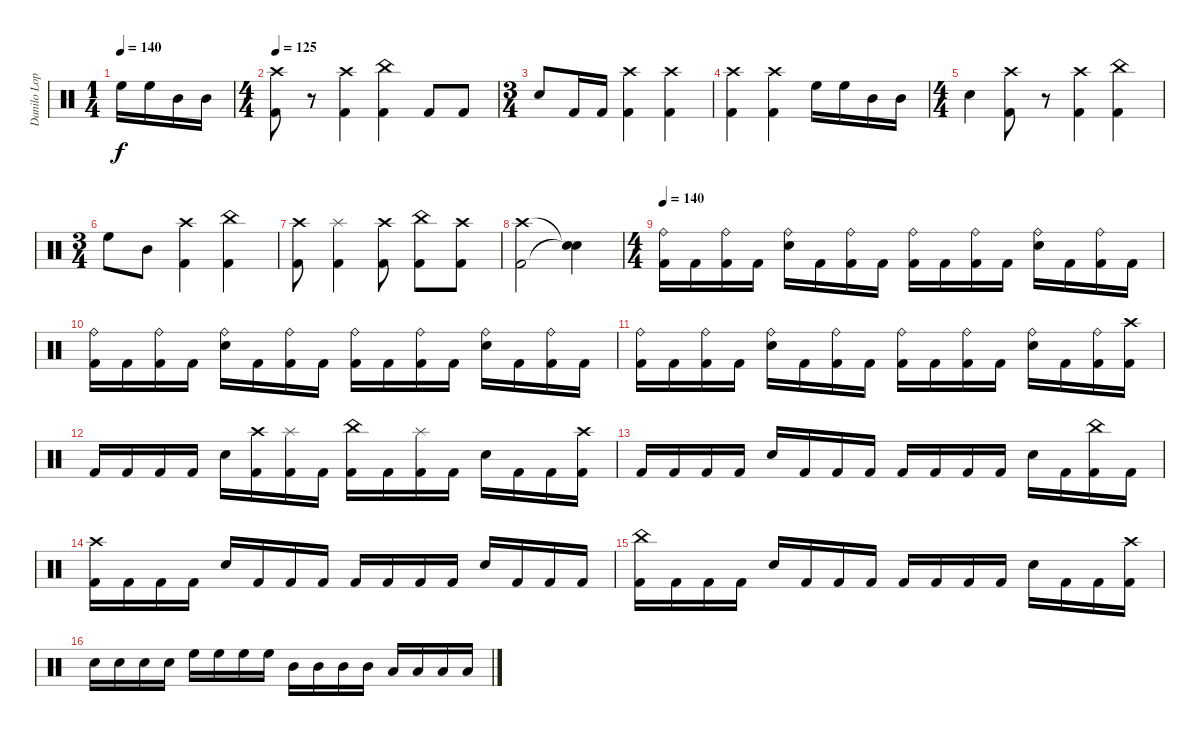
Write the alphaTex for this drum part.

\track ("Danilo Lopes" "Danilo Lop") {instrument percussion}
\staff {score}
\articulation defaults
\ts (1 4)
\tempo 140
\clef neutral
\ks c "High Floor Tom (hit)".16{dy f} "High Floor Tom (hit)".16 "Mid Tom (hit)".16 "Mid Tom (hit)".16
|
\ts (4 4)
\tempo 125
("Crash high (hit)" "Kick (hit) 2").8 r.8 ("Crash high (hit)" "Kick (hit) 2").4 ("China (hit)" "Kick (hit) 2").4 "Kick (hit) 2".8 "Kick (hit) 2".8 |
\ts (3 4)
"Snare (hit) 2".8 "Kick (hit) 2".16 "Kick (hit) 2".16 ("Crash high (hit)" "Kick (hit) 2").4 ("Kick (hit) 2" "Crash high (hit)").4 |
("Kick (hit) 2" "Crash high (hit)").4 ("Kick (hit) 2" "Crash high (hit)").4 "High Floor Tom (hit)".16 "High Floor Tom (hit)".16 "Mid Tom (hit)".16 "Mid Tom (hit)".16 |
\ts (4 4)
"Snare (hit) 2".4 ("Kick (hit) 2" "Crash high (hit)").8 r.8 ("Kick (hit) 2" "Crash high (hit)").4 ("China (hit)" "Kick (hit) 2").4 |
\ts (3 4)
"High Floor Tom (hit)".8 "Mid Tom (hit)".8 ("Kick (hit) 2" "Crash high (hit)").4 ("Kick (hit) 2" "China (hit)").4 |
("Crash high (hit)" "Kick (hit) 2").8 ("Splash (hit)" "Kick (hit) 2").4 ("Crash high (hit)" "Kick (hit) 2").8 ("China (hit)" "Kick (hit) 2").8 ("Crash high (hit)" "Kick (hit) 2").8 |
("Crash high (hit)" "Kick (hit) 2").2 ("Snare (hit)"{t} "Snare (hit)"{t}).4 |
\ts (4 4)
\tempo 140
("Ride (bell)" "Kick (hit) 2").16 "Kick (hit) 2".16 ("Ride (bell)" "Kick (hit) 2").16 "Kick (hit) 2".16 ("Ride (bell)" "Snare (hit) 2").16 "Kick (hit) 2".16 ("Ride (bell)" "Kick (hit) 2").16 "Kick (hit) 2".16 ("Ride (bell)" "Kick (hit) 2").16 "Kick (hit) 2".16 ("Ride (bell)" "Kick (hit) 2").16 "Kick (hit) 2".16 ("Ride (bell)" "Snare (hit) 2").16 "Kick (hit) 2".16 ("Ride (bell)" "Kick (hit) 2").16 "Kick (hit) 2".16 |
("Ride (bell)" "Kick (hit) 2").16 "Kick (hit) 2".16 ("Ride (bell)" "Kick (hit) 2").16 "Kick (hit) 2".16 ("Ride (bell)" "Snare (hit) 2").16 "Kick (hit) 2".16 ("Ride (bell)" "Kick (hit) 2").16 "Kick (hit) 2".16 ("Ride (bell)" "Kick (hit) 2").16 "Kick (hit) 2".16 ("Ride (bell)" "Kick (hit) 2").16 "Kick (hit) 2".16 ("Ride (bell)" "Snare (hit) 2").16 "Kick (hit) 2".16 ("Ride (bell)" "Kick (hit) 2").16 "Kick (hit) 2".16 |
("Ride (bell)" "Kick (hit) 2").16 "Kick (hit) 2".16 ("Ride (bell)" "Kick (hit) 2").16 "Kick (hit) 2".16 ("Ride (bell)" "Snare (hit) 2").16 "Kick (hit) 2".16 ("Ride (bell)" "Kick (hit) 2").16 "Kick (hit) 2".16 ("Ride (bell)" "Kick (hit) 2").16 "Kick (hit) 2".16 ("Ride (bell)" "Kick (hit) 2").16 "Kick (hit) 2".16 ("Ride (bell)" "Snare (hit) 2").16 "Kick (hit) 2".16 ("Ride (bell)" "Kick (hit) 2").16 ("Crash high (hit)" "Kick (hit) 2").16 |
"Kick (hit) 2".16 "Kick (hit) 2".16 "Kick (hit) 2".16 "Kick (hit) 2".16 "Snare (hit) 2".16 ("Crash high (hit)" "Kick (hit) 2").16 ("Splash (hit)" "Kick (hit) 2").16 "Kick (hit) 2".16 ("China (hit)" "Kick (hit) 2").16 "Kick (hit) 2".16 ("Splash (hit)" "Kick (hit) 2").16 "Kick (hit) 2".16 "Snare (hit) 2".16 "Kick (hit) 2".16 "Kick (hit) 2".16 ("Crash high (hit)" "Kick (hit) 2").16 |
"Kick (hit) 2".16 "Kick (hit) 2".16 "Kick (hit) 2".16 "Kick (hit) 2".16 "Snare (hit) 2".16 "Kick (hit) 2".16 "Kick (hit) 2".16 "Kick (hit) 2".16 "Kick (hit) 2".16 "Kick (hit) 2".16 "Kick (hit) 2".16 "Kick (hit) 2".16 "Snare (hit) 2".16 "Kick (hit) 2".16 ("China (hit)" "Kick (hit) 2").16 "Kick (hit) 2".16 |
("Crash high (hit)" "Kick (hit) 2").16 "Kick (hit) 2".16 "Kick (hit) 2".16 "Kick (hit) 2".16 "Snare (hit) 2".16 "Kick (hit) 2".16 "Kick (hit) 2".16 "Kick (hit) 2".16 "Kick (hit) 2".16 "Kick (hit) 2".16 "Kick (hit) 2".16 "Kick (hit) 2".16 "Snare (hit) 2".16 "Kick (hit) 2".16 "Kick (hit) 2".16 "Kick (hit) 2".16 |
("China (hit)" "Kick (hit) 2").16 "Kick (hit) 2".16 "Kick (hit) 2".16 "Kick (hit) 2".16 "Snare (hit) 2".16 "Kick (hit) 2".16 "Kick (hit) 2".16 "Kick (hit) 2".16 "Kick (hit) 2".16 "Kick (hit) 2".16 "Kick (hit) 2".16 "Kick (hit) 2".16 "Snare (hit) 2".16 "Kick (hit) 2".16 "Kick (hit) 2".16 ("Crash high (hit)" "Kick (hit) 2").16 |
"Snare (hit) 2".16 "Snare (hit) 2".16 "Snare (hit) 2".16 "Snare (hit) 2".16 "High Floor Tom (hit)".16 "High Floor Tom (hit)".16 "High Floor Tom (hit)".16 "High Floor Tom (hit)".16 "Mid Tom (hit)".16 "Mid Tom (hit)".16 "Mid Tom (hit)".16 "Mid Tom (hit)".16 "Low Tom (hit)".16 "Low Tom (hit)".16 "Low Tom (hit)".16 "Low Tom (hit)".16
